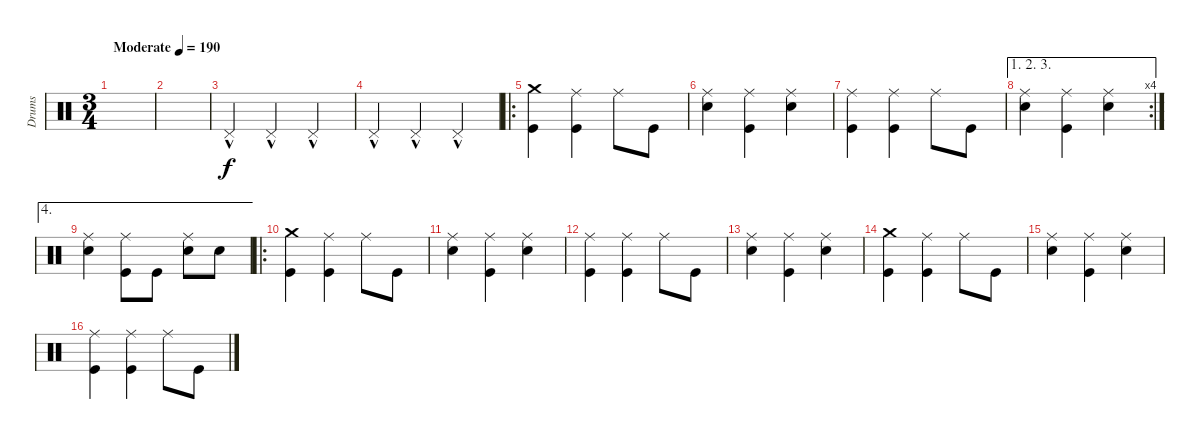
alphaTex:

\track ("Drums" "Drums") {instrument percussion bank 1}
\staff {score}
\articulation defaults
\ts (3 4)
\tempo (190 "Moderate")
\clef neutral
\ks c
|
|
"Pedal Hi-Hat (hit)"{hac}.4 "Pedal Hi-Hat (hit)"{hac}.4 "Pedal Hi-Hat (hit)"{hac}.4 |
"Pedal Hi-Hat (hit)"{hac}.4 "Pedal Hi-Hat (hit)"{hac}.4 "Pedal Hi-Hat (hit)"{hac}.4 |
\ro
("Kick (hit)" "Crash medium (hit)").4{dy f} ("Kick (hit)" "Ride (middle)").4 "Ride (middle)".8 "Kick (hit)".8 |
("Snare (hit) 2" "Ride (middle)").4 ("Kick (hit)" "Ride (middle)").4 ("Snare (hit) 2" "Ride (middle)").4 |
("Kick (hit)" "Ride (middle)").4 ("Kick (hit)" "Ride (middle)").4 "Ride (middle)".8 "Kick (hit)".8 |
\ae (1 2 3)
\rc 4
("Snare (hit) 2" "Ride (middle)").4 ("Kick (hit)" "Ride (middle)").4 ("Snare (hit) 2" "Ride (middle)").4 |
\ae 4
("Snare (hit) 2" "Ride (middle)").4 ("Kick (hit)" "Ride (middle)").8 "Kick (hit)".8 ("Snare (hit) 2" "Ride (middle)").8 "Snare (hit) 2".8 |
\ro
("Kick (hit)" "Crash medium (hit)").4 ("Kick (hit)" "Ride (middle)").4 "Ride (middle)".8 "Kick (hit)".8 |
("Snare (hit) 2" "Ride (middle)").4 ("Kick (hit)" "Ride (middle)").4 ("Snare (hit) 2" "Ride (middle)").4 |
("Kick (hit)" "Ride (middle)").4 ("Kick (hit)" "Ride (middle)").4 "Ride (middle)".8 "Kick (hit)".8 |
("Snare (hit) 2" "Ride (middle)").4 ("Kick (hit)" "Ride (middle)").4 ("Snare (hit) 2" "Ride (middle)").4 |
("Kick (hit)" "Crash medium (hit)").4 ("Kick (hit)" "Ride (middle)").4 "Ride (middle)".8 "Kick (hit)".8 |
("Snare (hit) 2" "Ride (middle)").4 ("Kick (hit)" "Ride (middle)").4 ("Snare (hit) 2" "Ride (middle)").4 |
("Kick (hit)" "Ride (middle)").4 ("Kick (hit)" "Ride (middle)").4 "Ride (middle)".8 "Kick (hit)".8
